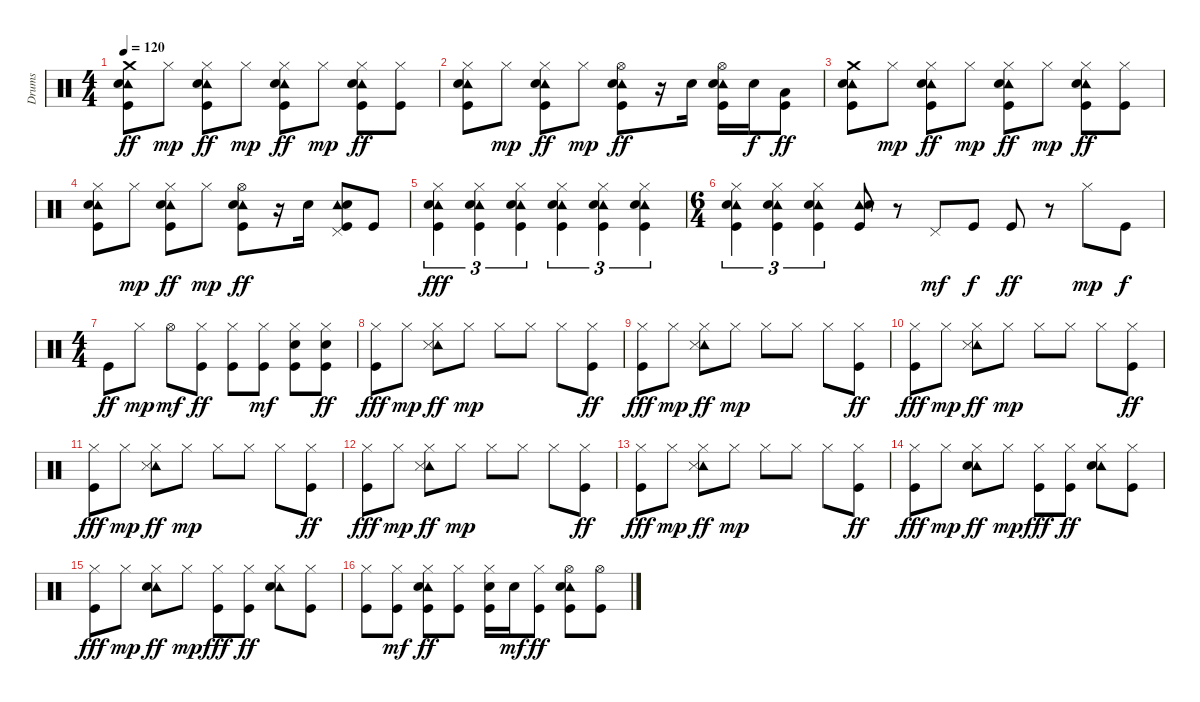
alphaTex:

\track ("Drums" "Drums") {instrument percussion}
\staff {score}
\articulation defaults
\ts (4 4)
\tempo 120
\clef neutral
\ks c
("Crash medium (hit)" "Tambourine (hit)" "Snare (hit) 2" "Kick (hit)").8{dy ff} "Hi-Hat (closed)".8{dy mp} ("Hi-Hat (closed)" "Tambourine (hit)" "Snare (hit) 2" "Kick (hit)").8{dy ff} "Hi-Hat (closed)".8{dy mp} ("Hi-Hat (closed)" "Tambourine (hit)" "Snare (hit) 2" "Kick (hit)").8{dy ff} "Hi-Hat (closed)".8{dy mp} ("Hi-Hat (closed)" "Tambourine (hit)" "Snare (hit) 2" "Kick (hit)").8{dy ff} ("Hi-Hat (closed)" "Kick (hit)").8 |
("Hi-Hat (closed)" "Tambourine (hit)" "Snare (hit) 2" "Kick (hit)").8 "Hi-Hat (closed)".8{dy mp} ("Hi-Hat (closed)" "Tambourine (hit)" "Snare (hit) 2" "Kick (hit)").8{dy ff} "Hi-Hat (closed)".8{dy mp} ("Hi-Hat (open)" "Tambourine (hit)" "Snare (hit) 2" "Kick (hit)").8{dy ff} r.16 "Snare (hit) 2".16 ("Hi-Hat (open)" "Tambourine (hit)" "Snare (hit) 2" "Kick (hit)").16 "Snare (hit) 2".16{dy f} ("Low Floor Tom (hit)" "Kick (hit)").8{dy ff} |
("Crash medium (hit)" "Tambourine (hit)" "Snare (hit) 2" "Kick (hit)").8 "Hi-Hat (closed)".8{dy mp} ("Hi-Hat (closed)" "Tambourine (hit)" "Snare (hit) 2" "Kick (hit)").8{dy ff} "Hi-Hat (closed)".8{dy mp} ("Hi-Hat (closed)" "Tambourine (hit)" "Snare (hit) 2" "Kick (hit)").8{dy ff} "Hi-Hat (closed)".8{dy mp} ("Hi-Hat (closed)" "Tambourine (hit)" "Snare (hit) 2" "Kick (hit)").8{dy ff} ("Hi-Hat (closed)" "Kick (hit)").8 |
("Hi-Hat (closed)" "Tambourine (hit)" "Snare (hit) 2" "Kick (hit)").8 "Hi-Hat (closed)".8{dy mp} ("Hi-Hat (closed)" "Tambourine (hit)" "Snare (hit) 2" "Kick (hit)").8{dy ff} "Hi-Hat (closed)".8{dy mp} ("Hi-Hat (open)" "Tambourine (hit)" "Snare (hit) 2" "Kick (hit)").8{dy ff} r.16 "Snare (hit) 2".16 ("Pedal Hi-Hat (hit)" "Tambourine (hit)" "Snare (hit) 2" "Kick (hit)").8 "Kick (hit)".8 |
("Hi-Hat (closed)" "Tambourine (hit)" "Snare (hit) 2" "Kick (hit)").4{tu (3 2) dy fff} ("Hi-Hat (closed)" "Tambourine (hit)" "Snare (hit) 2" "Kick (hit)").4{tu (3 2)} ("Hi-Hat (closed)" "Tambourine (hit)" "Snare (hit) 2" "Kick (hit)").4{tu (3 2)} ("Hi-Hat (closed)" "Tambourine (hit)" "Snare (hit) 2" "Kick (hit)").4{tu (3 2)} ("Hi-Hat (closed)" "Tambourine (hit)" "Snare (hit) 2" "Kick (hit)").4{tu (3 2)} ("Hi-Hat (closed)" "Tambourine (hit)" "Snare (hit) 2" "Kick (hit)").4{tu (3 2)} |
\ts (6 4)
("Hi-Hat (closed)" "Tambourine (hit)" "Snare (hit) 2" "Kick (hit)").4{tu (3 2)} ("Hi-Hat (closed)" "Tambourine (hit)" "Snare (hit) 2" "Kick (hit)").4{tu (3 2)} ("Hi-Hat (closed)" "Tambourine (hit)" "Snare (hit) 2" "Kick (hit)").4{tu (3 2)} ("Tambourine (hit)" "Snare (hit) 2" "Kick (hit)").8 r.8 "Pedal Hi-Hat (hit)".8{dy mf} "Kick (hit)".8{dy f} "Kick (hit)".8{dy ff} r.8 "Hi-Hat (closed)".8{dy mp} "Kick (hit)".8{dy f} |
\ts (4 4)
"Kick (hit)".8{dy ff} "Hi-Hat (closed)".8{dy mp} "Hi-Hat (open)".8{dy mf} ("Hi-Hat (closed)" "Kick (hit)").8{dy ff} ("Hi-Hat (closed)" "Kick (hit)").8 ("Hi-Hat (closed)" "Kick (hit)").8{dy mf} ("Hi-Hat (closed)" "Snare (hit) 2" "Kick (hit)").8 ("Hi-Hat (closed)" "Snare (hit) 2" "Kick (hit)").8{dy ff} |
("Hi-Hat (closed)" "Kick (hit)").8{dy fff} "Hi-Hat (closed)".8{dy mp} ("Hi-Hat (closed)" "Tambourine (hit)" "Snare (side stick) 3").8{dy ff} "Hi-Hat (closed)".8{dy mp} "Hi-Hat (closed)".8 "Hi-Hat (closed)".8 "Hi-Hat (closed)".8 ("Hi-Hat (closed)" "Kick (hit)").8{dy ff} |
("Hi-Hat (closed)" "Kick (hit)").8{dy fff} "Hi-Hat (closed)".8{dy mp} ("Hi-Hat (closed)" "Tambourine (hit)" "Snare (side stick) 3").8{dy ff} "Hi-Hat (closed)".8{dy mp} "Hi-Hat (closed)".8 "Hi-Hat (closed)".8 "Hi-Hat (closed)".8 ("Hi-Hat (closed)" "Kick (hit)").8{dy ff} |
("Hi-Hat (closed)" "Kick (hit)").8{dy fff} "Hi-Hat (closed)".8{dy mp} ("Hi-Hat (closed)" "Tambourine (hit)" "Snare (side stick) 3").8{dy ff} "Hi-Hat (closed)".8{dy mp} "Hi-Hat (closed)".8 "Hi-Hat (closed)".8 "Hi-Hat (closed)".8 ("Hi-Hat (closed)" "Kick (hit)").8{dy ff} |
("Hi-Hat (closed)" "Kick (hit)").8{dy fff} "Hi-Hat (closed)".8{dy mp} ("Hi-Hat (closed)" "Tambourine (hit)" "Snare (side stick) 3").8{dy ff} "Hi-Hat (closed)".8{dy mp} "Hi-Hat (closed)".8 "Hi-Hat (closed)".8 "Hi-Hat (closed)".8 ("Hi-Hat (closed)" "Kick (hit)").8{dy ff} |
("Hi-Hat (closed)" "Kick (hit)").8{dy fff} "Hi-Hat (closed)".8{dy mp} ("Hi-Hat (closed)" "Tambourine (hit)" "Snare (side stick) 3").8{dy ff} "Hi-Hat (closed)".8{dy mp} "Hi-Hat (closed)".8 "Hi-Hat (closed)".8 "Hi-Hat (closed)".8 ("Hi-Hat (closed)" "Kick (hit)").8{dy ff} |
("Hi-Hat (closed)" "Kick (hit)").8{dy fff} "Hi-Hat (closed)".8{dy mp} ("Hi-Hat (closed)" "Tambourine (hit)" "Snare (side stick) 3").8{dy ff} "Hi-Hat (closed)".8{dy mp} "Hi-Hat (closed)".8 "Hi-Hat (closed)".8 "Hi-Hat (closed)".8 ("Hi-Hat (closed)" "Kick (hit)").8{dy ff} |
("Hi-Hat (closed)" "Kick (hit)").8{dy fff} "Hi-Hat (closed)".8{dy mp} ("Hi-Hat (closed)" "Tambourine (hit)" "Snare (hit) 2").8{dy ff} "Hi-Hat (closed)".8{dy mp} ("Hi-Hat (closed)" "Kick (hit)").8{dy fff} ("Hi-Hat (closed)" "Kick (hit)").8{dy ff} ("Hi-Hat (closed)" "Tambourine (hit)" "Snare (hit) 2").8 ("Hi-Hat (closed)" "Kick (hit)").8 |
("Hi-Hat (closed)" "Kick (hit)").8{dy fff} "Hi-Hat (closed)".8{dy mp} ("Hi-Hat (closed)" "Tambourine (hit)" "Snare (hit) 2").8{dy ff} "Hi-Hat (closed)".8{dy mp} ("Hi-Hat (closed)" "Kick (hit)").8{dy fff} ("Hi-Hat (closed)" "Kick (hit)").8{dy ff} ("Hi-Hat (closed)" "Tambourine (hit)" "Snare (hit) 2").8 ("Hi-Hat (closed)" "Kick (hit)").8 |
("Hi-Hat (closed)" "Kick (hit)").8 ("Hi-Hat (closed)" "Kick (hit)").8{dy mf} ("Hi-Hat (closed)" "Tambourine (hit)" "Snare (hit) 2" "Kick (hit)").8{dy ff} ("Hi-Hat (closed)" "Kick (hit)").8 ("Hi-Hat (closed)" "Snare (hit) 2" "Kick (hit)").16 "Snare (hit) 2".16{dy mf} ("Hi-Hat (closed)" "Kick (hit)").8{dy ff} ("Hi-Hat (open)" "Tambourine (hit)" "Snare (hit) 2" "Kick (hit)").8 ("Hi-Hat (open)" "Kick (hit)").8
